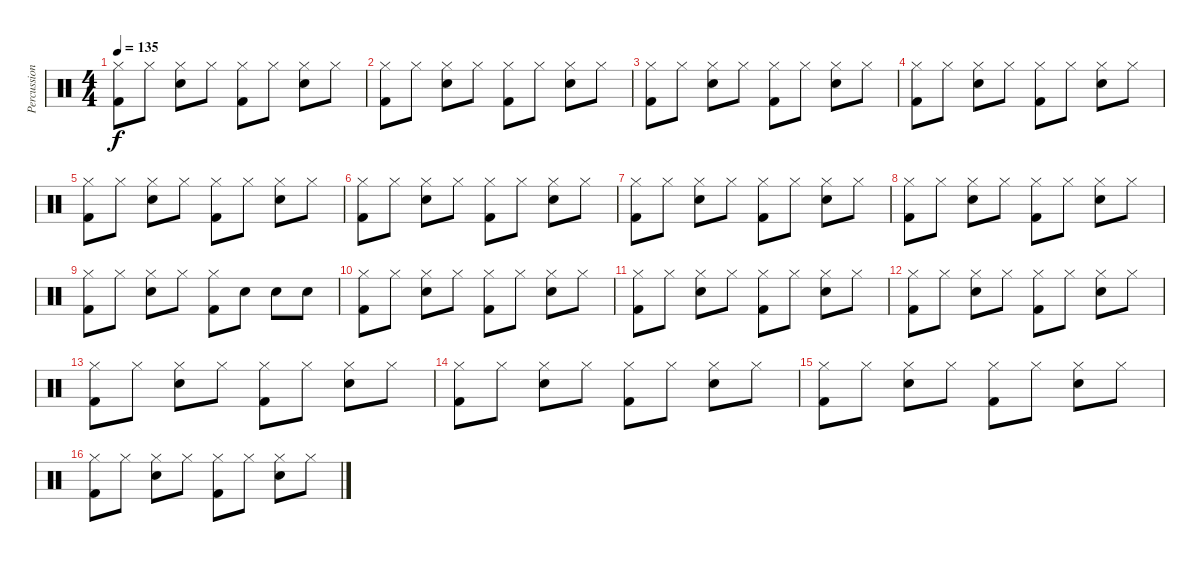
\track ("Percussions" "Percussion") {instrument percussion}
\staff {score}
\articulation defaults
\ts (4 4)
\tempo 135
\clef neutral
\ks c
("Kick (hit) 2" "Hi-Hat (closed)").8{dy f} "Hi-Hat (closed)".8 ("Hi-Hat (closed)" "Snare (hit) 2").8 "Hi-Hat (closed)".8 ("Hi-Hat (closed)" "Kick (hit) 2").8 "Hi-Hat (closed)".8 ("Hi-Hat (closed)" "Snare (hit) 2").8 "Hi-Hat (closed)".8 |
("Kick (hit) 2" "Hi-Hat (closed)").8 "Hi-Hat (closed)".8 ("Hi-Hat (closed)" "Snare (hit) 2").8 "Hi-Hat (closed)".8 ("Hi-Hat (closed)" "Kick (hit) 2").8 "Hi-Hat (closed)".8 ("Hi-Hat (closed)" "Snare (hit) 2").8 "Hi-Hat (closed)".8 |
("Kick (hit) 2" "Hi-Hat (closed)").8 "Hi-Hat (closed)".8 ("Hi-Hat (closed)" "Snare (hit) 2").8 "Hi-Hat (closed)".8 ("Hi-Hat (closed)" "Kick (hit) 2").8 "Hi-Hat (closed)".8 ("Hi-Hat (closed)" "Snare (hit) 2").8 "Hi-Hat (closed)".8 |
("Kick (hit) 2" "Hi-Hat (closed)").8 "Hi-Hat (closed)".8 ("Hi-Hat (closed)" "Snare (hit) 2").8 "Hi-Hat (closed)".8 ("Hi-Hat (closed)" "Kick (hit) 2").8 "Hi-Hat (closed)".8 ("Hi-Hat (closed)" "Snare (hit) 2").8 "Hi-Hat (closed)".8 |
("Kick (hit) 2" "Hi-Hat (closed)").8 "Hi-Hat (closed)".8 ("Hi-Hat (closed)" "Snare (hit) 2").8 "Hi-Hat (closed)".8 ("Hi-Hat (closed)" "Kick (hit) 2").8 "Hi-Hat (closed)".8 ("Hi-Hat (closed)" "Snare (hit) 2").8 "Hi-Hat (closed)".8 |
("Kick (hit) 2" "Hi-Hat (closed)").8 "Hi-Hat (closed)".8 ("Hi-Hat (closed)" "Snare (hit) 2").8 "Hi-Hat (closed)".8 ("Hi-Hat (closed)" "Kick (hit) 2").8 "Hi-Hat (closed)".8 ("Hi-Hat (closed)" "Snare (hit) 2").8 "Hi-Hat (closed)".8 |
("Kick (hit) 2" "Hi-Hat (closed)").8 "Hi-Hat (closed)".8 ("Hi-Hat (closed)" "Snare (hit) 2").8 "Hi-Hat (closed)".8 ("Hi-Hat (closed)" "Kick (hit) 2").8 "Hi-Hat (closed)".8 ("Hi-Hat (closed)" "Snare (hit) 2").8 "Hi-Hat (closed)".8 |
("Kick (hit) 2" "Hi-Hat (closed)").8 "Hi-Hat (closed)".8 ("Hi-Hat (closed)" "Snare (hit) 2").8 "Hi-Hat (closed)".8 ("Hi-Hat (closed)" "Kick (hit) 2").8 "Hi-Hat (closed)".8 ("Hi-Hat (closed)" "Snare (hit) 2").8 "Hi-Hat (closed)".8 |
("Kick (hit) 2" "Hi-Hat (closed)").8 "Hi-Hat (closed)".8 ("Hi-Hat (closed)" "Snare (hit) 2").8 "Hi-Hat (closed)".8 ("Hi-Hat (closed)" "Kick (hit) 2").8 "Snare (hit) 2".8 "Snare (hit) 2".8 "Snare (hit) 2".8 |
("Kick (hit) 2" "Hi-Hat (closed)").8 "Hi-Hat (closed)".8 ("Hi-Hat (closed)" "Snare (hit) 2").8 "Hi-Hat (closed)".8 ("Hi-Hat (closed)" "Kick (hit) 2").8 "Hi-Hat (closed)".8 ("Hi-Hat (closed)" "Snare (hit) 2").8 "Hi-Hat (closed)".8 |
("Kick (hit) 2" "Hi-Hat (closed)").8 "Hi-Hat (closed)".8 ("Hi-Hat (closed)" "Snare (hit) 2").8 "Hi-Hat (closed)".8 ("Hi-Hat (closed)" "Kick (hit) 2").8 "Hi-Hat (closed)".8 ("Hi-Hat (closed)" "Snare (hit) 2").8 "Hi-Hat (closed)".8 |
("Kick (hit) 2" "Hi-Hat (closed)").8 "Hi-Hat (closed)".8 ("Hi-Hat (closed)" "Snare (hit) 2").8 "Hi-Hat (closed)".8 ("Hi-Hat (closed)" "Kick (hit) 2").8 "Hi-Hat (closed)".8 ("Hi-Hat (closed)" "Snare (hit) 2").8 "Hi-Hat (closed)".8 |
("Kick (hit) 2" "Hi-Hat (closed)").8 "Hi-Hat (closed)".8 ("Hi-Hat (closed)" "Snare (hit) 2").8 "Hi-Hat (closed)".8 ("Hi-Hat (closed)" "Kick (hit) 2").8 "Hi-Hat (closed)".8 ("Hi-Hat (closed)" "Snare (hit) 2").8 "Hi-Hat (closed)".8 |
("Kick (hit) 2" "Hi-Hat (closed)").8 "Hi-Hat (closed)".8 ("Hi-Hat (closed)" "Snare (hit) 2").8 "Hi-Hat (closed)".8 ("Hi-Hat (closed)" "Kick (hit) 2").8 "Hi-Hat (closed)".8 ("Hi-Hat (closed)" "Snare (hit) 2").8 "Hi-Hat (closed)".8 |
("Kick (hit) 2" "Hi-Hat (closed)").8 "Hi-Hat (closed)".8 ("Hi-Hat (closed)" "Snare (hit) 2").8 "Hi-Hat (closed)".8 ("Hi-Hat (closed)" "Kick (hit) 2").8 "Hi-Hat (closed)".8 ("Hi-Hat (closed)" "Snare (hit) 2").8 "Hi-Hat (closed)".8 |
("Kick (hit) 2" "Hi-Hat (closed)").8 "Hi-Hat (closed)".8 ("Hi-Hat (closed)" "Snare (hit) 2").8 "Hi-Hat (closed)".8 ("Hi-Hat (closed)" "Kick (hit) 2").8 "Hi-Hat (closed)".8 ("Hi-Hat (closed)" "Snare (hit) 2").8 "Hi-Hat (closed)".8
